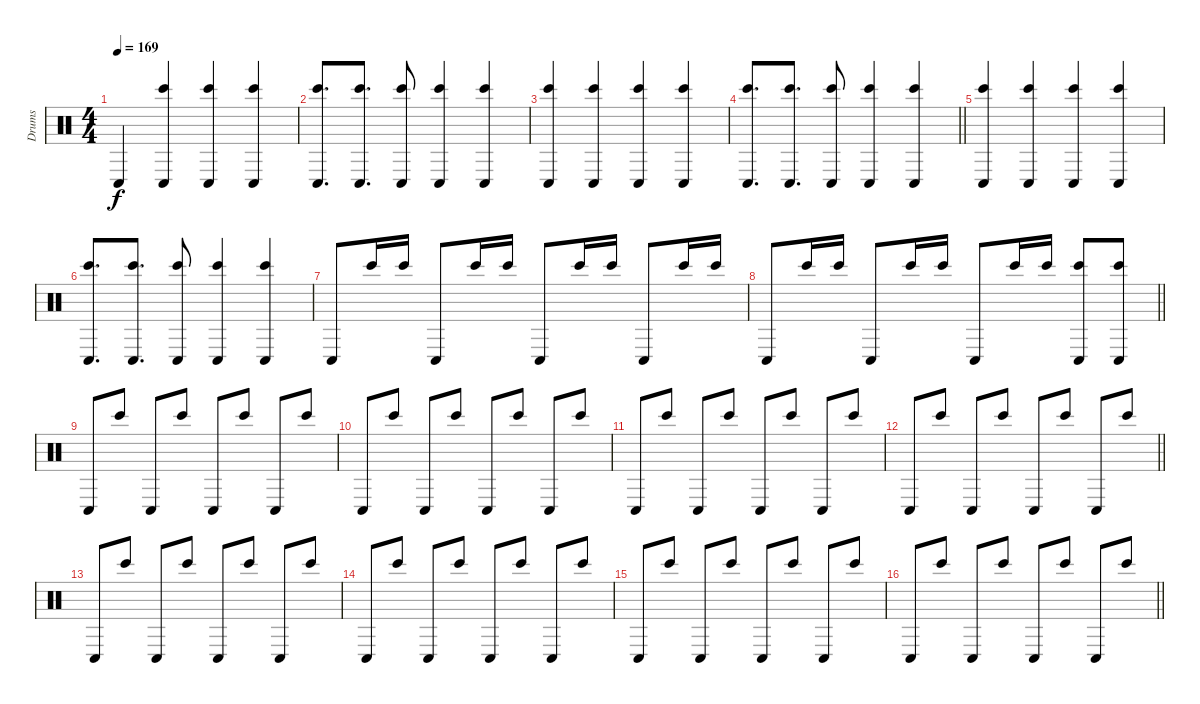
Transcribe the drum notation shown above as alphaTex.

\track ("Drums" "Drums") {instrument percussion}
\staff
\articulation defaults
\ts (4 4)
\section ("" "")
\tempo 169
\clef neutral
\ks c "Conga low (hit)".4{dy f}
("Bongo High (hit)" "Conga low (hit)").4 ("Bongo High (hit)" "Conga low (hit)").4 ("Bongo High (hit)" "Conga low (hit)").4 |
("Bongo High (hit)" "Conga low (hit)").8{d} ("Bongo High (hit)" "Conga low (hit)").8{d} ("Bongo High (hit)" "Conga low (hit)").8 ("Bongo High (hit)" "Conga low (hit)").4 ("Bongo High (hit)" "Conga low (hit)").4 |
("Bongo High (hit)" "Conga low (hit)").4 ("Bongo High (hit)" "Conga low (hit)").4 ("Bongo High (hit)" "Conga low (hit)").4 ("Bongo High (hit)" "Conga low (hit)").4 |
\barLineRight lightlight
("Bongo High (hit)" "Conga low (hit)").8{d} ("Bongo High (hit)" "Conga low (hit)").8{d} ("Bongo High (hit)" "Conga low (hit)").8 ("Bongo High (hit)" "Conga low (hit)").4 ("Bongo High (hit)" "Conga low (hit)").4 |
("Bongo High (hit)" "Conga low (hit)").4 ("Bongo High (hit)" "Conga low (hit)").4 ("Bongo High (hit)" "Conga low (hit)").4 ("Bongo High (hit)" "Conga low (hit)").4 |
("Bongo High (hit)" "Conga low (hit)").8{d} ("Bongo High (hit)" "Conga low (hit)").8{d} ("Bongo High (hit)" "Conga low (hit)").8 ("Bongo High (hit)" "Conga low (hit)").4 ("Bongo High (hit)" "Conga low (hit)").4 |
"Conga low (hit)".8 "Bongo High (hit)".16 "Bongo High (hit)".16 "Conga low (hit)".8 "Bongo High (hit)".16 "Bongo High (hit)".16 "Conga low (hit)".8 "Bongo High (hit)".16 "Bongo High (hit)".16 "Conga low (hit)".8 "Bongo High (hit)".16 "Bongo High (hit)".16 |
\barLineRight lightlight "Conga low (hit)".8 "Bongo High (hit)".16 "Bongo High (hit)".16 "Conga low (hit)".8 "Bongo High (hit)".16 "Bongo High (hit)".16 "Conga low (hit)".8 "Bongo High (hit)".16 "Bongo High (hit)".16
("Bongo High (hit)" "Conga low (hit)").8 ("Bongo High (hit)" "Conga low (hit)").8 |
\section ("" "")
"Conga low (hit)".8 "Bongo High (hit)".8 "Conga low (hit)".8 "Bongo High (hit)".8 "Conga low (hit)".8 "Bongo High (hit)".8 "Conga low (hit)".8 "Bongo High (hit)".8 |
"Conga low (hit)".8 "Bongo High (hit)".8 "Conga low (hit)".8 "Bongo High (hit)".8 "Conga low (hit)".8 "Bongo High (hit)".8 "Conga low (hit)".8 "Bongo High (hit)".8 |
"Conga low (hit)".8 "Bongo High (hit)".8 "Conga low (hit)".8 "Bongo High (hit)".8 "Conga low (hit)".8 "Bongo High (hit)".8 "Conga low (hit)".8 "Bongo High (hit)".8 |
\barLineRight lightlight "Conga low (hit)".8 "Bongo High (hit)".8 "Conga low (hit)".8 "Bongo High (hit)".8 "Conga low (hit)".8 "Bongo High (hit)".8 "Conga low (hit)".8 "Bongo High (hit)".8
|
"Conga low (hit)".8 "Bongo High (hit)".8 "Conga low (hit)".8 "Bongo High (hit)".8 "Conga low (hit)".8 "Bongo High (hit)".8 "Conga low (hit)".8 "Bongo High (hit)".8 |
"Conga low (hit)".8 "Bongo High (hit)".8 "Conga low (hit)".8 "Bongo High (hit)".8 "Conga low (hit)".8 "Bongo High (hit)".8 "Conga low (hit)".8 "Bongo High (hit)".8 |
"Conga low (hit)".8 "Bongo High (hit)".8 "Conga low (hit)".8 "Bongo High (hit)".8 "Conga low (hit)".8 "Bongo High (hit)".8 "Conga low (hit)".8 "Bongo High (hit)".8 |
\barLineRight lightlight "Conga low (hit)".8 "Bongo High (hit)".8 "Conga low (hit)".8 "Bongo High (hit)".8 "Conga low (hit)".8 "Bongo High (hit)".8 "Conga low (hit)".8 "Bongo High (hit)".8
